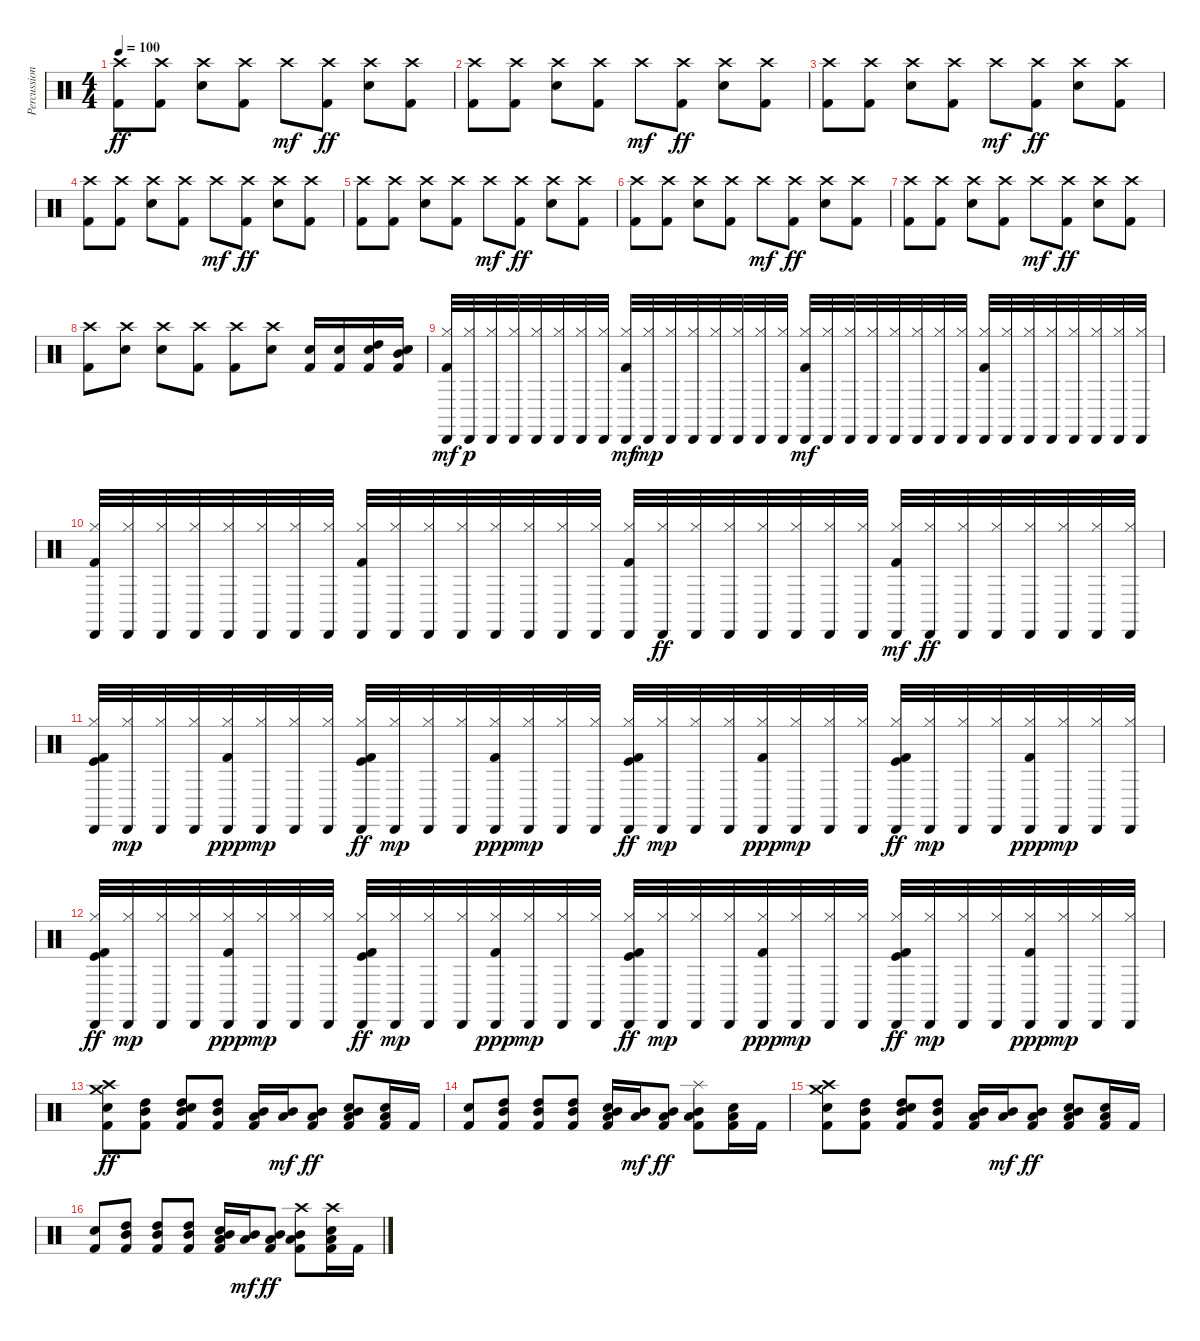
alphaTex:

\track ("Percussions" "Percussion") {instrument percussion}
\staff {score}
\articulation defaults
\ts (4 4)
\tempo 100
\clef neutral
\ks c
("Crash high (hit)" "Kick (hit) 2").8{dy ff} ("Crash high (hit)" "Kick (hit) 2").8 ("Crash high (hit)" "Electric Snare (hit)").8 ("Crash high (hit)" "Kick (hit) 2").8 "Crash high (hit)".8{dy mf} ("Crash high (hit)" "Kick (hit) 2").8{dy ff} ("Crash high (hit)" "Electric Snare (hit)").8 ("Crash high (hit)" "Kick (hit) 2").8 |
("Crash high (hit)" "Kick (hit) 2").8 ("Crash high (hit)" "Kick (hit) 2").8 ("Crash high (hit)" "Electric Snare (hit)").8 ("Crash high (hit)" "Kick (hit) 2").8 "Crash high (hit)".8{dy mf} ("Crash high (hit)" "Kick (hit) 2").8{dy ff} ("Crash high (hit)" "Electric Snare (hit)").8 ("Crash high (hit)" "Kick (hit) 2").8 |
("Crash high (hit)" "Kick (hit) 2").8 ("Crash high (hit)" "Kick (hit) 2").8 ("Crash high (hit)" "Electric Snare (hit)").8 ("Crash high (hit)" "Kick (hit) 2").8 "Crash high (hit)".8{dy mf} ("Crash high (hit)" "Kick (hit) 2").8{dy ff} ("Crash high (hit)" "Electric Snare (hit)").8 ("Crash high (hit)" "Kick (hit) 2").8 |
("Crash high (hit)" "Kick (hit) 2").8 ("Crash high (hit)" "Kick (hit) 2").8 ("Crash high (hit)" "Electric Snare (hit)").8 ("Crash high (hit)" "Kick (hit) 2").8 "Crash high (hit)".8{dy mf} ("Crash high (hit)" "Kick (hit) 2").8{dy ff} ("Crash high (hit)" "Electric Snare (hit)").8 ("Crash high (hit)" "Kick (hit) 2").8 |
("Crash high (hit)" "Kick (hit) 2").8 ("Crash high (hit)" "Kick (hit) 2").8 ("Crash high (hit)" "Electric Snare (hit)").8 ("Crash high (hit)" "Kick (hit) 2").8 "Crash high (hit)".8{dy mf} ("Crash high (hit)" "Kick (hit) 2").8{dy ff} ("Crash high (hit)" "Electric Snare (hit)").8 ("Crash high (hit)" "Kick (hit) 2").8 |
("Crash high (hit)" "Kick (hit) 2").8 ("Crash high (hit)" "Kick (hit) 2").8 ("Crash high (hit)" "Electric Snare (hit)").8 ("Crash high (hit)" "Kick (hit) 2").8 "Crash high (hit)".8{dy mf} ("Crash high (hit)" "Kick (hit) 2").8{dy ff} ("Crash high (hit)" "Electric Snare (hit)").8 ("Crash high (hit)" "Kick (hit) 2").8 |
("Crash high (hit)" "Kick (hit) 2").8 ("Crash high (hit)" "Kick (hit) 2").8 ("Crash high (hit)" "Electric Snare (hit)").8 ("Crash high (hit)" "Kick (hit) 2").8 "Crash high (hit)".8{dy mf} ("Crash high (hit)" "Kick (hit) 2").8{dy ff} ("Crash high (hit)" "Electric Snare (hit)").8 ("Crash high (hit)" "Kick (hit) 2").8 |
("Crash high (hit)" "Kick (hit) 2").8 ("Crash high (hit)" "Electric Snare (hit)").8 ("Crash high (hit)" "Electric Snare (hit)").8 ("Crash high (hit)" "Kick (hit) 2").8 ("Crash high (hit)" "Kick (hit) 2").8 ("Crash high (hit)" "Electric Snare (hit)").8 ("Electric Snare (hit)" "Kick (hit) 2").16 ("Electric Snare (hit)" "Kick (hit) 2").16 ("High Tom (hit)" "Electric Snare (hit)" "Kick (hit) 2").16 ("Mid Tom (hit)" "Electric Snare (hit)" "Kick (hit) 2").16 |
("Hi-Hat (closed)" "Cabasa (hit)" "Kick (hit) 2").32{dy mf volume 5} ("Hi-Hat (closed)" "Cabasa (hit)").32{dy p} ("Hi-Hat (closed)" "Cabasa (hit)").32 ("Hi-Hat (closed)" "Cabasa (hit)").32 ("Hi-Hat (closed)" "Cabasa (hit)").32 ("Hi-Hat (closed)" "Cabasa (hit)").32 ("Hi-Hat (closed)" "Cabasa (hit)").32 ("Hi-Hat (closed)" "Cabasa (hit)").32 ("Hi-Hat (closed)" "Cabasa (hit)" "Kick (hit) 2").32{dy mf} ("Hi-Hat (closed)" "Cabasa (hit)").32{dy mp} ("Hi-Hat (closed)" "Cabasa (hit)").32 ("Hi-Hat (closed)" "Cabasa (hit)").32 ("Hi-Hat (closed)" "Cabasa (hit)").32 ("Hi-Hat (closed)" "Cabasa (hit)").32 ("Hi-Hat (closed)" "Cabasa (hit)").32 ("Hi-Hat (closed)" "Cabasa (hit)").32 ("Hi-Hat (closed)" "Cabasa (hit)" "Kick (hit) 2").32{dy mf} ("Hi-Hat (closed)" "Cabasa (hit)").32 ("Hi-Hat (closed)" "Cabasa (hit)").32 ("Hi-Hat (closed)" "Cabasa (hit)").32 ("Hi-Hat (closed)" "Cabasa (hit)").32 ("Hi-Hat (closed)" "Cabasa (hit)").32 ("Hi-Hat (closed)" "Cabasa (hit)").32 ("Hi-Hat (closed)" "Cabasa (hit)").32 ("Hi-Hat (closed)" "Cabasa (hit)" "Kick (hit) 2").32 ("Hi-Hat (closed)" "Cabasa (hit)").32 ("Hi-Hat (closed)" "Cabasa (hit)").32 ("Hi-Hat (closed)" "Cabasa (hit)").32 ("Hi-Hat (closed)" "Cabasa (hit)").32 ("Hi-Hat (closed)" "Cabasa (hit)").32 ("Hi-Hat (closed)" "Cabasa (hit)").32 ("Hi-Hat (closed)" "Cabasa (hit)").32 |
("Hi-Hat (closed)" "Cabasa (hit)" "Kick (hit) 2").32 ("Hi-Hat (closed)" "Cabasa (hit)").32 ("Hi-Hat (closed)" "Cabasa (hit)").32 ("Hi-Hat (closed)" "Cabasa (hit)").32 ("Hi-Hat (closed)" "Cabasa (hit)").32 ("Hi-Hat (closed)" "Cabasa (hit)").32 ("Hi-Hat (closed)" "Cabasa (hit)").32 ("Hi-Hat (closed)" "Cabasa (hit)").32 ("Hi-Hat (closed)" "Cabasa (hit)" "Kick (hit) 2").32 ("Hi-Hat (closed)" "Cabasa (hit)").32 ("Hi-Hat (closed)" "Cabasa (hit)").32 ("Hi-Hat (closed)" "Cabasa (hit)").32 ("Hi-Hat (closed)" "Cabasa (hit)").32 ("Hi-Hat (closed)" "Cabasa (hit)").32 ("Hi-Hat (closed)" "Cabasa (hit)").32 ("Hi-Hat (closed)" "Cabasa (hit)").32 ("Hi-Hat (closed)" "Cabasa (hit)" "Kick (hit) 2").32 ("Hi-Hat (closed)" "Cabasa (hit)").32{dy ff} ("Hi-Hat (closed)" "Cabasa (hit)").32 ("Hi-Hat (closed)" "Cabasa (hit)").32 ("Hi-Hat (closed)" "Cabasa (hit)").32 ("Hi-Hat (closed)" "Cabasa (hit)").32 ("Hi-Hat (closed)" "Cabasa (hit)").32 ("Hi-Hat (closed)" "Cabasa (hit)").32 ("Hi-Hat (closed)" "Cabasa (hit)" "Kick (hit) 2").32{dy mf} ("Hi-Hat (closed)" "Cabasa (hit)").32{dy ff} ("Hi-Hat (closed)" "Cabasa (hit)").32 ("Hi-Hat (closed)" "Cabasa (hit)").32 ("Hi-Hat (closed)" "Cabasa (hit)").32 ("Hi-Hat (closed)" "Cabasa (hit)").32 ("Hi-Hat (closed)" "Cabasa (hit)").32 ("Hi-Hat (closed)" "Cabasa (hit)").32 |
("Hi-Hat (closed)" "Cabasa (hit)" "Kick (hit)" "Kick (hit) 2").32{volume 16} ("Hi-Hat (closed)" "Cabasa (hit)").32{dy mp} ("Hi-Hat (closed)" "Cabasa (hit)").32 ("Hi-Hat (closed)" "Cabasa (hit)").32 ("Hi-Hat (closed)" "Cabasa (hit)" "Kick (hit) 2").32{dy ppp} ("Hi-Hat (closed)" "Cabasa (hit)").32{dy mp} ("Hi-Hat (closed)" "Cabasa (hit)").32 ("Hi-Hat (closed)" "Cabasa (hit)").32 ("Hi-Hat (closed)" "Cabasa (hit)" "Kick (hit)" "Kick (hit) 2").32{dy ff} ("Hi-Hat (closed)" "Cabasa (hit)").32{dy mp} ("Hi-Hat (closed)" "Cabasa (hit)").32 ("Hi-Hat (closed)" "Cabasa (hit)").32 ("Hi-Hat (closed)" "Cabasa (hit)" "Kick (hit) 2").32{dy ppp} ("Hi-Hat (closed)" "Cabasa (hit)").32{dy mp} ("Hi-Hat (closed)" "Cabasa (hit)").32 ("Hi-Hat (closed)" "Cabasa (hit)").32 ("Hi-Hat (closed)" "Cabasa (hit)" "Kick (hit)" "Kick (hit) 2").32{dy ff} ("Hi-Hat (closed)" "Cabasa (hit)").32{dy mp} ("Hi-Hat (closed)" "Cabasa (hit)").32 ("Hi-Hat (closed)" "Cabasa (hit)").32 ("Hi-Hat (closed)" "Cabasa (hit)" "Kick (hit) 2").32{dy ppp} ("Hi-Hat (closed)" "Cabasa (hit)").32{dy mp} ("Hi-Hat (closed)" "Cabasa (hit)").32 ("Hi-Hat (closed)" "Cabasa (hit)").32 ("Hi-Hat (closed)" "Cabasa (hit)" "Kick (hit)" "Kick (hit) 2").32{dy ff} ("Hi-Hat (closed)" "Cabasa (hit)").32{dy mp} ("Hi-Hat (closed)" "Cabasa (hit)").32 ("Hi-Hat (closed)" "Cabasa (hit)").32 ("Hi-Hat (closed)" "Cabasa (hit)" "Kick (hit) 2").32{dy ppp} ("Hi-Hat (closed)" "Cabasa (hit)").32{dy mp} ("Hi-Hat (closed)" "Cabasa (hit)").32 ("Hi-Hat (closed)" "Cabasa (hit)").32 |
("Hi-Hat (closed)" "Cabasa (hit)" "Kick (hit)" "Kick (hit) 2").32{dy ff} ("Hi-Hat (closed)" "Cabasa (hit)").32{dy mp} ("Hi-Hat (closed)" "Cabasa (hit)").32 ("Hi-Hat (closed)" "Cabasa (hit)").32 ("Hi-Hat (closed)" "Cabasa (hit)" "Kick (hit) 2").32{dy ppp} ("Hi-Hat (closed)" "Cabasa (hit)").32{dy mp} ("Hi-Hat (closed)" "Cabasa (hit)").32 ("Hi-Hat (closed)" "Cabasa (hit)").32 ("Hi-Hat (closed)" "Cabasa (hit)" "Kick (hit)" "Kick (hit) 2").32{dy ff} ("Hi-Hat (closed)" "Cabasa (hit)").32{dy mp} ("Hi-Hat (closed)" "Cabasa (hit)").32 ("Hi-Hat (closed)" "Cabasa (hit)").32 ("Hi-Hat (closed)" "Cabasa (hit)" "Kick (hit) 2").32{dy ppp} ("Hi-Hat (closed)" "Cabasa (hit)").32{dy mp} ("Hi-Hat (closed)" "Cabasa (hit)").32 ("Hi-Hat (closed)" "Cabasa (hit)").32 ("Hi-Hat (closed)" "Cabasa (hit)" "Kick (hit)" "Kick (hit) 2").32{dy ff} ("Hi-Hat (closed)" "Cabasa (hit)").32{dy mp} ("Hi-Hat (closed)" "Cabasa (hit)").32 ("Hi-Hat (closed)" "Cabasa (hit)").32 ("Hi-Hat (closed)" "Cabasa (hit)" "Kick (hit) 2").32{dy ppp} ("Hi-Hat (closed)" "Cabasa (hit)").32{dy mp} ("Hi-Hat (closed)" "Cabasa (hit)").32 ("Hi-Hat (closed)" "Cabasa (hit)").32 ("Hi-Hat (closed)" "Cabasa (hit)" "Kick (hit)" "Kick (hit) 2").32{dy ff} ("Hi-Hat (closed)" "Cabasa (hit)").32{dy mp} ("Hi-Hat (closed)" "Cabasa (hit)").32 ("Hi-Hat (closed)" "Cabasa (hit)").32 ("Hi-Hat (closed)" "Cabasa (hit)" "Kick (hit) 2").32{dy ppp} ("Hi-Hat (closed)" "Cabasa (hit)").32{dy mp} ("Hi-Hat (closed)" "Cabasa (hit)").32 ("Hi-Hat (closed)" "Cabasa (hit)").32 |
("Electric Snare (hit)" "Crash medium (hit)" "Crash high (hit)" "Kick (hit) 2").8{dy ff} ("High Tom (hit)" "Mid Tom (hit)" "Kick (hit) 2").8 ("High Tom (hit)" "Mid Tom (hit)" "Electric Snare (hit)" "Kick (hit) 2").8 ("High Tom (hit)" "Mid Tom (hit)" "Kick (hit) 2").8 ("Mid Tom (hit)" "Low Tom (hit)" "Kick (hit) 2").16 ("Mid Tom (hit)" "Low Tom (hit)").16{dy mf} ("Mid Tom (hit)" "Low Tom (hit)" "Kick (hit) 2").8{dy ff} ("Mid Tom (hit)" "Low Tom (hit)" "Electric Snare (hit)" "Kick (hit) 2").8 ("Low Tom (hit)" "Metronome (bell)" "Kick (hit) 2").16 "Kick (hit) 2".16 |
("Electric Snare (hit)" "Kick (hit) 2").8 ("High Tom (hit)" "Mid Tom (hit)" "Kick (hit) 2").8 ("High Tom (hit)" "Mid Tom (hit)" "Kick (hit) 2").8 ("High Tom (hit)" "Mid Tom (hit)" "Kick (hit) 2").8 ("Mid Tom (hit)" "Low Tom (hit)" "Electric Snare (hit)" "Kick (hit) 2").16 ("Mid Tom (hit)" "Low Tom (hit)").16{dy mf} ("Mid Tom (hit)" "Low Tom (hit)" "Kick (hit) 2").8{dy ff} ("Mid Tom (hit)" "Low Tom (hit)" "Splash (hit)" "Kick (hit) 2").8 ("Low Tom (hit)" "Metronome (bell)" "Kick (hit) 2").16 "Kick (hit) 2".16 |
("Electric Snare (hit)" "Crash medium (hit)" "Crash high (hit)" "Kick (hit) 2").8 ("High Tom (hit)" "Mid Tom (hit)" "Kick (hit) 2").8 ("High Tom (hit)" "Mid Tom (hit)" "Electric Snare (hit)" "Kick (hit) 2").8 ("High Tom (hit)" "Mid Tom (hit)" "Kick (hit) 2").8 ("Mid Tom (hit)" "Low Tom (hit)" "Kick (hit) 2").16 ("Mid Tom (hit)" "Low Tom (hit)").16{dy mf} ("Mid Tom (hit)" "Low Tom (hit)" "Kick (hit) 2").8{dy ff} ("Mid Tom (hit)" "Low Tom (hit)" "Electric Snare (hit)" "Kick (hit) 2").8 ("Low Tom (hit)" "Metronome (bell)" "Kick (hit) 2").16 "Kick (hit) 2".16 |
("Electric Snare (hit)" "Kick (hit) 2").8 ("High Tom (hit)" "Mid Tom (hit)" "Kick (hit) 2").8 ("High Tom (hit)" "Mid Tom (hit)" "Kick (hit) 2").8 ("High Tom (hit)" "Mid Tom (hit)" "Kick (hit) 2").8 ("Mid Tom (hit)" "Low Tom (hit)" "Electric Snare (hit)" "Kick (hit) 2").16 ("Mid Tom (hit)" "Low Tom (hit)").16{dy mf} ("Mid Tom (hit)" "Low Tom (hit)" "Kick (hit) 2").8{dy ff} ("Mid Tom (hit)" "Low Tom (hit)" "Crash high (hit)" "Kick (hit) 2").8 ("Low Tom (hit)" "Metronome (bell)" "Crash high (hit)" "Kick (hit) 2").16 "Kick (hit) 2".16
